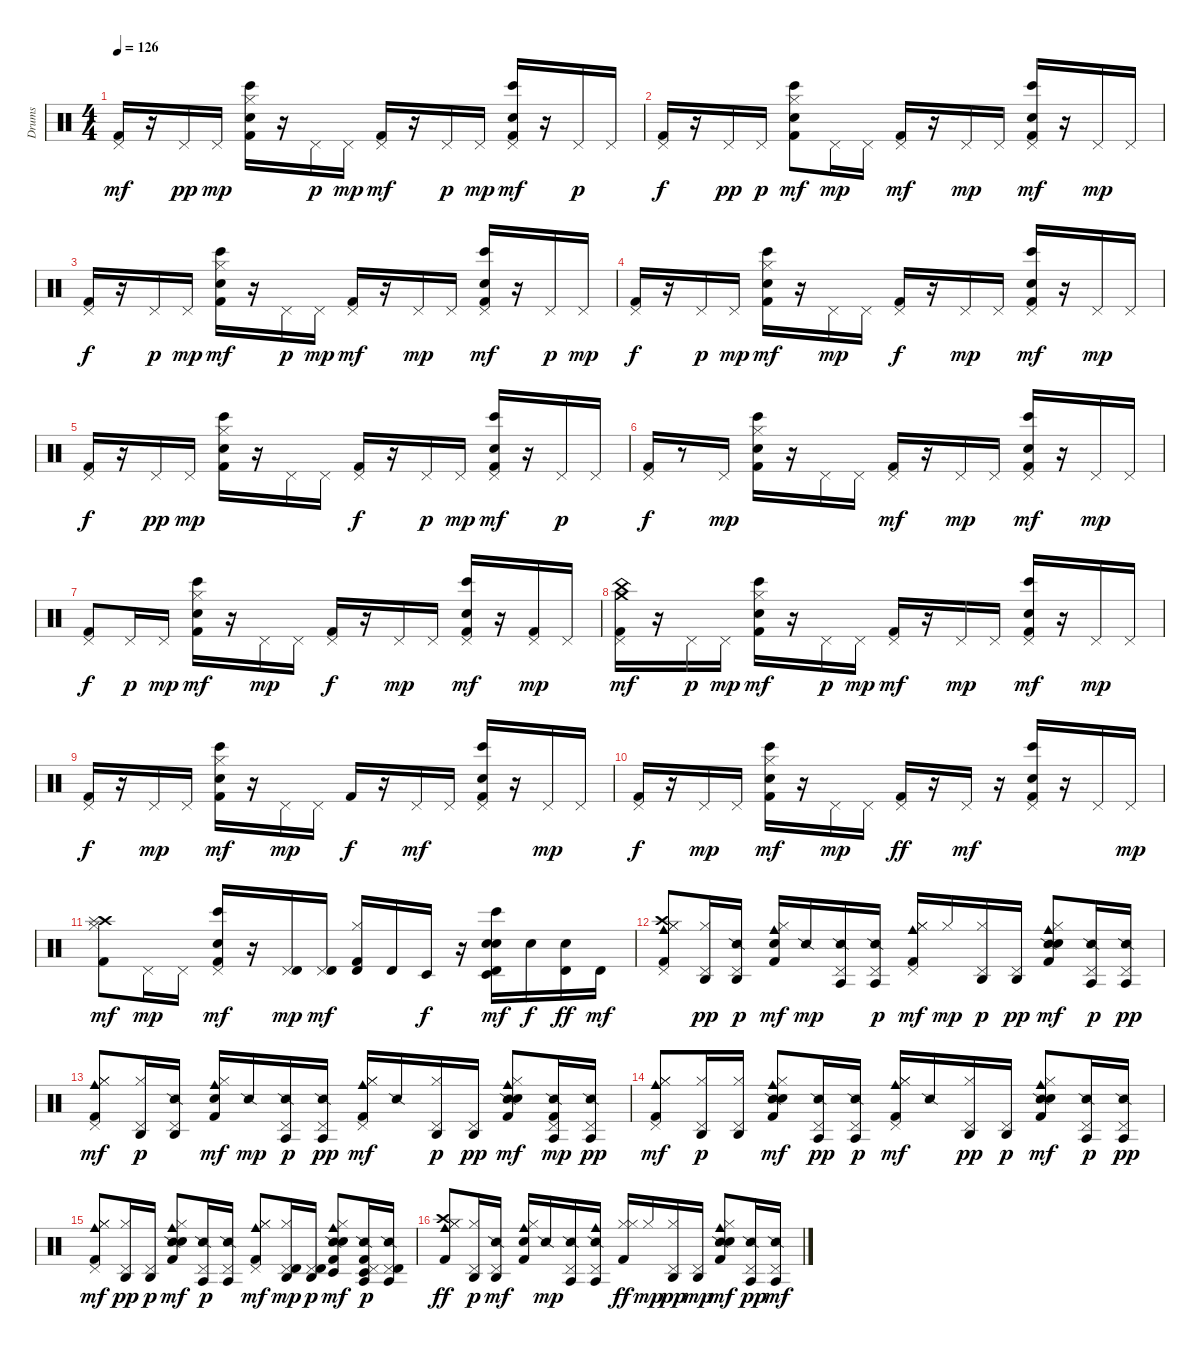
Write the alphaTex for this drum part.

\track ("Drums" "Drums") {instrument percussion}
\staff {score}
\articulation defaults
\ts (4 4)
\tempo 126
\clef neutral
\ks c
("Kick (hit) 2" "Pedal Hi-Hat (hit)").16{dy mf} r.16 "Pedal Hi-Hat (hit)".16{dy pp} "Pedal Hi-Hat (hit)".16{dy mp} ("Bongo High (hit)" "Kick (hit) 2" "Hand Clap (hit)" "Hi-Hat (closed)").16 r.16 "Pedal Hi-Hat (hit)".16{dy p} "Pedal Hi-Hat (hit)".16{dy mp} ("Kick (hit) 2" "Pedal Hi-Hat (hit)").16{dy mf} r.16 "Pedal Hi-Hat (hit)".16{dy p} "Pedal Hi-Hat (hit)".16{dy mp} ("Bongo High (hit)" "Kick (hit) 2" "Hand Clap (hit)" "Pedal Hi-Hat (hit)").16{dy mf} r.16 "Pedal Hi-Hat (hit)".16{dy p} "Pedal Hi-Hat (hit)".16 |
("Kick (hit) 2" "Pedal Hi-Hat (hit)").16{dy f} r.16 "Pedal Hi-Hat (hit)".16{dy pp} "Pedal Hi-Hat (hit)".16{dy p} ("Bongo High (hit)" "Kick (hit) 2" "Hand Clap (hit)" "Hi-Hat (closed)").8{dy mf} "Pedal Hi-Hat (hit)".16{dy mp} "Pedal Hi-Hat (hit)".16 ("Kick (hit) 2" "Pedal Hi-Hat (hit)").16{dy mf} r.16 "Pedal Hi-Hat (hit)".16{dy mp} "Pedal Hi-Hat (hit)".16 ("Bongo High (hit)" "Kick (hit) 2" "Hand Clap (hit)" "Pedal Hi-Hat (hit)").16{dy mf} r.16 "Pedal Hi-Hat (hit)".16{dy mp} "Pedal Hi-Hat (hit)".16 |
("Kick (hit) 2" "Pedal Hi-Hat (hit)").16{dy f} r.16 "Pedal Hi-Hat (hit)".16{dy p} "Pedal Hi-Hat (hit)".16{dy mp} ("Bongo High (hit)" "Kick (hit) 2" "Hand Clap (hit)" "Hi-Hat (closed)").16{dy mf} r.16 "Pedal Hi-Hat (hit)".16{dy p} "Pedal Hi-Hat (hit)".16{dy mp} ("Kick (hit) 2" "Pedal Hi-Hat (hit)").16{dy mf} r.16 "Pedal Hi-Hat (hit)".16{dy mp} "Pedal Hi-Hat (hit)".16 ("Bongo High (hit)" "Kick (hit) 2" "Hand Clap (hit)" "Pedal Hi-Hat (hit)").16{dy mf} r.16 "Pedal Hi-Hat (hit)".16{dy p} "Pedal Hi-Hat (hit)".16{dy mp} |
("Kick (hit) 2" "Pedal Hi-Hat (hit)").16{dy f} r.16 "Pedal Hi-Hat (hit)".16{dy p} "Pedal Hi-Hat (hit)".16{dy mp} ("Bongo High (hit)" "Kick (hit) 2" "Hand Clap (hit)" "Hi-Hat (closed)").16{dy mf} r.16 "Pedal Hi-Hat (hit)".16{dy mp} "Pedal Hi-Hat (hit)".16 ("Kick (hit) 2" "Pedal Hi-Hat (hit)").16{dy f} r.16 "Pedal Hi-Hat (hit)".16{dy mp} "Pedal Hi-Hat (hit)".16 ("Bongo High (hit)" "Kick (hit) 2" "Hand Clap (hit)" "Pedal Hi-Hat (hit)").16{dy mf} r.16 "Pedal Hi-Hat (hit)".16{dy mp} "Pedal Hi-Hat (hit)".16 |
("Kick (hit) 2" "Pedal Hi-Hat (hit)").16{dy f} r.16 "Pedal Hi-Hat (hit)".16{dy pp} "Pedal Hi-Hat (hit)".16{dy mp} ("Bongo High (hit)" "Kick (hit) 2" "Hand Clap (hit)" "Hi-Hat (closed)").16 r.16 "Pedal Hi-Hat (hit)".16 "Pedal Hi-Hat (hit)".16 ("Kick (hit) 2" "Pedal Hi-Hat (hit)").16{dy f} r.16 "Pedal Hi-Hat (hit)".16{dy p} "Pedal Hi-Hat (hit)".16{dy mp} ("Bongo High (hit)" "Kick (hit) 2" "Hand Clap (hit)" "Pedal Hi-Hat (hit)").16{dy mf} r.16 "Pedal Hi-Hat (hit)".16{dy p} "Pedal Hi-Hat (hit)".16 |
("Kick (hit) 2" "Pedal Hi-Hat (hit)").16{dy f} r.8 "Pedal Hi-Hat (hit)".16{dy mp} ("Bongo High (hit)" "Kick (hit) 2" "Hand Clap (hit)" "Hi-Hat (closed)").16 r.16 "Pedal Hi-Hat (hit)".16 "Pedal Hi-Hat (hit)".16 ("Kick (hit) 2" "Pedal Hi-Hat (hit)").16{dy mf} r.16 "Pedal Hi-Hat (hit)".16{dy mp} "Pedal Hi-Hat (hit)".16 ("Bongo High (hit)" "Kick (hit) 2" "Hand Clap (hit)" "Pedal Hi-Hat (hit)").16{dy mf} r.16 "Pedal Hi-Hat (hit)".16{dy mp} "Pedal Hi-Hat (hit)".16 |
("Kick (hit) 2" "Pedal Hi-Hat (hit)").8{dy f} "Pedal Hi-Hat (hit)".16{dy p} "Pedal Hi-Hat (hit)".16{dy mp} ("Bongo High (hit)" "Kick (hit) 2" "Hand Clap (hit)" "Hi-Hat (closed)").16{dy mf} r.16 "Pedal Hi-Hat (hit)".16{dy mp} "Pedal Hi-Hat (hit)".16 ("Kick (hit) 2" "Pedal Hi-Hat (hit)").16{dy f} r.16 "Pedal Hi-Hat (hit)".16{dy mp} "Pedal Hi-Hat (hit)".16 ("Bongo High (hit)" "Kick (hit) 2" "Hand Clap (hit)" "Pedal Hi-Hat (hit)").16{dy mf} r.16 ("Kick (hit) 2" "Pedal Hi-Hat (hit)").16{dy mp} "Pedal Hi-Hat (hit)".16 |
("Kick (hit) 2" "Pedal Hi-Hat (hit)" "China (hit)" "Crash medium (hit)").16{dy mf} r.16 "Pedal Hi-Hat (hit)".16{dy p} "Pedal Hi-Hat (hit)".16{dy mp} ("Bongo High (hit)" "Kick (hit) 2" "Hand Clap (hit)" "Hi-Hat (closed)").16{dy mf} r.16 "Pedal Hi-Hat (hit)".16{dy p} "Pedal Hi-Hat (hit)".16{dy mp} ("Kick (hit) 2" "Pedal Hi-Hat (hit)").16{dy mf} r.16 "Pedal Hi-Hat (hit)".16{dy mp} "Pedal Hi-Hat (hit)".16 ("Bongo High (hit)" "Kick (hit) 2" "Hand Clap (hit)" "Pedal Hi-Hat (hit)").16{dy mf} r.16 "Pedal Hi-Hat (hit)".16{dy mp} "Pedal Hi-Hat (hit)".16 |
("Kick (hit) 2" "Pedal Hi-Hat (hit)").16{dy f} r.16 "Pedal Hi-Hat (hit)".16{dy mp} "Pedal Hi-Hat (hit)".16 ("Bongo High (hit)" "Kick (hit) 2" "Hand Clap (hit)" "Hi-Hat (closed)").16{dy mf} r.16 "Pedal Hi-Hat (hit)".16{dy mp} "Pedal Hi-Hat (hit)".16 "Kick (hit) 2".16{dy f} r.16 "Pedal Hi-Hat (hit)".16{dy mf} "Pedal Hi-Hat (hit)".16 ("Bongo High (hit)" "Kick (hit) 2" "Hand Clap (hit)" "Pedal Hi-Hat (hit)").16 r.16 "Pedal Hi-Hat (hit)".16{dy mp} "Pedal Hi-Hat (hit)".16 |
("Kick (hit) 2" "Pedal Hi-Hat (hit)").16{dy f} r.16 "Pedal Hi-Hat (hit)".16{dy mp} "Pedal Hi-Hat (hit)".16 ("Bongo High (hit)" "Kick (hit) 2" "Hand Clap (hit)" "Hi-Hat (closed)").16{dy mf} r.16 "Pedal Hi-Hat (hit)".16{dy mp} "Pedal Hi-Hat (hit)".16 ("Kick (hit) 2" "Pedal Hi-Hat (hit)").16{dy ff} r.16 "Pedal Hi-Hat (hit)".16{dy mf} r.16 ("Bongo High (hit)" "Kick (hit) 2" "Hand Clap (hit)" "Pedal Hi-Hat (hit)").16 r.16 "Pedal Hi-Hat (hit)".16 "Pedal Hi-Hat (hit)".16{dy mp} |
("Kick (hit) 2" "Hi-Hat (closed)" "Crash high (hit)" "Splash (hit)").8{dy mf} "Pedal Hi-Hat (hit)".16{dy mp} "Pedal Hi-Hat (hit)".16 ("Bongo High (hit)" "Kick (hit) 2" "Hand Clap (hit)" "Pedal Hi-Hat (hit)").16{dy mf} r.16 ("Pedal Hi-Hat (hit)" "Timbale high (hit)").16{dy mp} ("Pedal Hi-Hat (hit)" "Timbale high (hit)").16{dy mf} ("Kick (hit) 2" "Hi-Hat (closed)" "Timbale high (hit)").16 "Timbale high (hit)".16 "Timbale low (hit)".16{dy f} r.16 ("Bongo High (hit)" "Hand Clap (hit)" "Electric Snare (hit)" "Timbale high (hit)" "Timbale low (hit)").16{dy mf} "Electric Snare (hit)".16{dy f} ("Electric Snare (hit)" "Timbale high (hit)").16{dy ff} "Timbale high (hit)".16{dy mf} |
("Hi-Hat (closed)" "Kick (hit) 2" "Hi-Hat (closed)" "Pedal Hi-Hat (hit)" "Crash high (hit)" "Cowbell medium (hit)").8 ("Hi-Hat (closed)" "Pedal Hi-Hat (hit)" "Agogo high (hit)").16{dy pp} ("Snare (side stick) 2" "Pedal Hi-Hat (hit)" "Agogo high (hit)").16{dy p} ("Kick (hit) 2" "Hand Clap (hit)" "Hi-Hat (closed)" "Cowbell medium (hit)").16{dy mf} "Snare (side stick) 2".16{dy mp} ("Snare (side stick) 2" "Pedal Hi-Hat (hit)" "Agogo tow (hit)").16 ("Snare (side stick) 2" "Pedal Hi-Hat (hit)" "Agogo tow (hit)").16{dy p} ("Hi-Hat (closed)" "Kick (hit) 2" "Hi-Hat (closed)" "Pedal Hi-Hat (hit)" "Cowbell medium (hit)").16{dy mf} "Hi-Hat (closed)".16{dy mp} ("Hi-Hat (closed)" "Pedal Hi-Hat (hit)" "Agogo high (hit)").16{dy p} ("Pedal Hi-Hat (hit)" "Agogo high (hit)").16{dy pp} ("Snare (side stick) 2" "Kick (hit) 2" "Hand Clap (hit)" "Hi-Hat (closed)" "Cowbell medium (hit)").8{dy mf} ("Snare (side stick) 2" "Pedal Hi-Hat (hit)" "Agogo tow (hit)").16{dy p} ("Snare (side stick) 2" "Pedal Hi-Hat (hit)" "Agogo tow (hit)").16{dy pp} |
("Hi-Hat (closed)" "Kick (hit) 2" "Hi-Hat (closed)" "Pedal Hi-Hat (hit)" "Cowbell medium (hit)").8{dy mf} ("Hi-Hat (closed)" "Pedal Hi-Hat (hit)" "Agogo high (hit)").16{dy p} ("Snare (side stick) 2" "Pedal Hi-Hat (hit)" "Agogo high (hit)").16 ("Kick (hit) 2" "Hand Clap (hit)" "Hi-Hat (closed)" "Cowbell medium (hit)").16{dy mf} "Snare (side stick) 2".16{dy mp} ("Snare (side stick) 2" "Pedal Hi-Hat (hit)" "Agogo tow (hit)").16{dy p} ("Snare (side stick) 2" "Pedal Hi-Hat (hit)" "Agogo tow (hit)").16{dy pp} ("Hi-Hat (closed)" "Kick (hit) 2" "Hi-Hat (closed)" "Pedal Hi-Hat (hit)" "Cowbell medium (hit)").16{dy mf} "Snare (side stick) 2".16 ("Hi-Hat (closed)" "Pedal Hi-Hat (hit)" "Agogo high (hit)").16{dy p} ("Pedal Hi-Hat (hit)" "Agogo high (hit)").16{dy pp} ("Snare (side stick) 2" "Kick (hit) 2" "Hand Clap (hit)" "Hi-Hat (closed)" "Cowbell medium (hit)").8{dy mf} ("Snare (side stick) 2" "Kick (hit) 2" "Pedal Hi-Hat (hit)" "Agogo tow (hit)").16{dy mp} ("Snare (side stick) 2" "Pedal Hi-Hat (hit)" "Agogo tow (hit)").16{dy pp} |
("Hi-Hat (closed)" "Kick (hit) 2" "Hi-Hat (closed)" "Pedal Hi-Hat (hit)" "Cowbell medium (hit)").8{dy mf} ("Hi-Hat (closed)" "Pedal Hi-Hat (hit)" "Agogo high (hit)").16{dy p} ("Hi-Hat (closed)" "Pedal Hi-Hat (hit)" "Agogo high (hit)").16 ("Snare (side stick) 2" "Kick (hit) 2" "Hand Clap (hit)" "Hi-Hat (closed)" "Cowbell medium (hit)").8{dy mf} ("Snare (side stick) 2" "Pedal Hi-Hat (hit)" "Agogo tow (hit)").16{dy pp} ("Snare (side stick) 2" "Pedal Hi-Hat (hit)" "Agogo tow (hit)").16{dy p} ("Hi-Hat (closed)" "Kick (hit) 2" "Hi-Hat (closed)" "Pedal Hi-Hat (hit)" "Cowbell medium (hit)").16{dy mf} "Snare (side stick) 2".16 ("Hi-Hat (closed)" "Pedal Hi-Hat (hit)" "Agogo high (hit)").16{dy pp} ("Pedal Hi-Hat (hit)" "Agogo high (hit)").16{dy p} ("Snare (side stick) 2" "Kick (hit) 2" "Hand Clap (hit)" "Hi-Hat (closed)" "Cowbell medium (hit)").8{dy mf} ("Snare (side stick) 2" "Pedal Hi-Hat (hit)" "Agogo tow (hit)").16{dy p} ("Snare (side stick) 2" "Pedal Hi-Hat (hit)" "Agogo tow (hit)").16{dy pp} |
("Hi-Hat (closed)" "Kick (hit) 2" "Hi-Hat (closed)" "Pedal Hi-Hat (hit)" "Cowbell medium (hit)").8{dy mf} ("Hi-Hat (closed)" "Pedal Hi-Hat (hit)" "Agogo high (hit)").16{dy pp} ("Pedal Hi-Hat (hit)" "Agogo high (hit)").16{dy p} ("Snare (side stick) 2" "Kick (hit) 2" "Hand Clap (hit)" "Hi-Hat (closed)" "Cowbell medium (hit)").8{dy mf} ("Snare (side stick) 2" "Pedal Hi-Hat (hit)" "Agogo tow (hit)").16{dy p} ("Snare (side stick) 2" "Pedal Hi-Hat (hit)" "Agogo tow (hit)").16 ("Hi-Hat (closed)" "Kick (hit) 2" "Hi-Hat (closed)" "Pedal Hi-Hat (hit)" "Cowbell medium (hit)").8{dy mf} ("Hi-Hat (closed)" "Pedal Hi-Hat (hit)" "Timbale high (hit)" "Agogo high (hit)").16{dy mp} ("Pedal Hi-Hat (hit)" "Timbale high (hit)" "Agogo high (hit)").16{dy p} ("Snare (side stick) 2" "Kick (hit) 2" "Hand Clap (hit)" "Hi-Hat (closed)" "Cowbell medium (hit)" "Timbale low (hit)").8{dy mf} ("Snare (side stick) 2" "Kick (hit) 2" "Pedal Hi-Hat (hit)" "Timbale low (hit)" "Agogo tow (hit)").16{dy p} ("Snare (side stick) 2" "Pedal Hi-Hat (hit)" "Timbale high (hit)" "Agogo tow (hit)").16 |
("Hi-Hat (closed)" "Kick (hit) 2" "Hi-Hat (closed)" "Crash high (hit)" "Cowbell medium (hit)").8{dy ff} ("Hi-Hat (closed)" "Pedal Hi-Hat (hit)" "Agogo high (hit)").16{dy p} ("Snare (side stick) 2" "Agogo high (hit)" "Pedal Hi-Hat (hit)").16{dy mf} ("Kick (hit) 2" "Hand Clap (hit)" "Hi-Hat (closed)" "Cowbell medium (hit)").16 "Snare (side stick) 2".16{dy mp} ("Snare (side stick) 2" "Pedal Hi-Hat (hit)" "Agogo tow (hit)").16 ("Snare (side stick) 2" "Cowbell medium (hit)" "Agogo tow (hit)" "Pedal Hi-Hat (hit)").16 ("Hi-Hat (closed)" "Kick (hit) 2" "Hi-Hat (closed)").16{dy ff} "Hi-Hat (closed)".16{dy mp} ("Hi-Hat (closed)" "Pedal Hi-Hat (hit)" "Agogo high (hit)").16{dy pp} ("Agogo high (hit)" "Pedal Hi-Hat (hit)").16{dy mp} ("Snare (side stick) 2" "Kick (hit) 2" "Hand Clap (hit)" "Hi-Hat (closed)" "Cowbell medium (hit)").8{dy mf} ("Snare (side stick) 2" "Pedal Hi-Hat (hit)" "Agogo tow (hit)").16{dy pp} ("Snare (side stick) 2" "Agogo tow (hit)" "Pedal Hi-Hat (hit)").16{dy mf}
